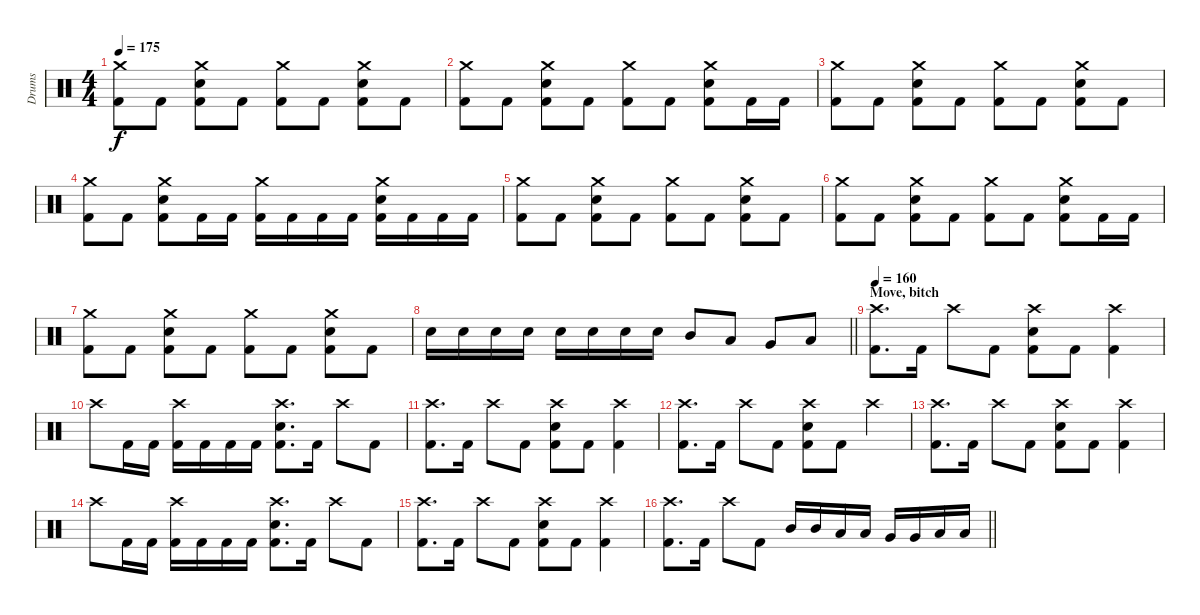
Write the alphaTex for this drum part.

\track ("Drums" "Drums") {instrument percussion}
\staff {score}
\articulation defaults
\ts (4 4)
\tempo 175
\clef neutral
\ks c
("Crash medium (hit)" "Kick (hit) 2").8{dy f} "Kick (hit) 2".8 ("Crash medium (hit)" "Electric Snare (hit)" "Kick (hit) 2").8 "Kick (hit) 2".8 ("Crash medium (hit)" "Kick (hit) 2").8 "Kick (hit) 2".8 ("Crash medium (hit)" "Electric Snare (hit)" "Kick (hit) 2").8 "Kick (hit) 2".8 |
("Crash medium (hit)" "Kick (hit) 2").8 "Kick (hit) 2".8 ("Crash medium (hit)" "Electric Snare (hit)" "Kick (hit) 2").8 "Kick (hit) 2".8 ("Crash medium (hit)" "Kick (hit) 2").8 "Kick (hit) 2".8 ("Crash medium (hit)" "Electric Snare (hit)" "Kick (hit) 2").8 "Kick (hit) 2".16 "Kick (hit) 2".16 |
("Crash medium (hit)" "Kick (hit) 2").8 "Kick (hit) 2".8 ("Crash medium (hit)" "Electric Snare (hit)" "Kick (hit) 2").8 "Kick (hit) 2".8 ("Crash medium (hit)" "Kick (hit) 2").8 "Kick (hit) 2".8 ("Crash medium (hit)" "Electric Snare (hit)" "Kick (hit) 2").8 "Kick (hit) 2".8 |
("Crash medium (hit)" "Kick (hit) 2").8 "Kick (hit) 2".8 ("Crash medium (hit)" "Electric Snare (hit)" "Kick (hit) 2").8 "Kick (hit) 2".16 "Kick (hit) 2".16 ("Crash medium (hit)" "Kick (hit) 2").16 "Kick (hit) 2".16 "Kick (hit) 2".16 "Kick (hit) 2".16 ("Crash medium (hit)" "Electric Snare (hit)" "Kick (hit) 2").16 "Kick (hit) 2".16 "Kick (hit) 2".16 "Kick (hit) 2".16 |
("Crash medium (hit)" "Kick (hit) 2").8 "Kick (hit) 2".8 ("Crash medium (hit)" "Electric Snare (hit)" "Kick (hit) 2").8 "Kick (hit) 2".8 ("Crash medium (hit)" "Kick (hit) 2").8 "Kick (hit) 2".8 ("Crash medium (hit)" "Electric Snare (hit)" "Kick (hit) 2").8 "Kick (hit) 2".8 |
("Crash medium (hit)" "Kick (hit) 2").8 "Kick (hit) 2".8 ("Crash medium (hit)" "Electric Snare (hit)" "Kick (hit) 2").8 "Kick (hit) 2".8 ("Crash medium (hit)" "Kick (hit) 2").8 "Kick (hit) 2".8 ("Crash medium (hit)" "Electric Snare (hit)" "Kick (hit) 2").8 "Kick (hit) 2".16 "Kick (hit) 2".16 |
("Crash medium (hit)" "Kick (hit) 2").8 "Kick (hit) 2".8 ("Crash medium (hit)" "Electric Snare (hit)" "Kick (hit) 2").8 "Kick (hit) 2".8 ("Crash medium (hit)" "Kick (hit) 2").8 "Kick (hit) 2".8 ("Crash medium (hit)" "Electric Snare (hit)" "Kick (hit) 2").8 "Kick (hit) 2".8 |
\barLineRight lightlight "Electric Snare (hit)".16 "Electric Snare (hit)".16 "Electric Snare (hit)".16 "Electric Snare (hit)".16 "Electric Snare (hit)".16 "Electric Snare (hit)".16 "Electric Snare (hit)".16 "Electric Snare (hit)".16 "Mid Tom (hit)".8 "Low Tom (hit)".8 "Very Low Tom (hit)".8 "Low Floor Tom (hit)".8
|
\section ("" "Move, bitch")
\tempo 160
("Crash high (hit)" "Kick (hit) 2").8{d} "Kick (hit) 2".16 "Crash high (hit)".8 "Kick (hit) 2".8 ("Crash high (hit)" "Electric Snare (hit)" "Kick (hit) 2").8 "Kick (hit) 2".8 ("Crash high (hit)" "Kick (hit) 2").4 |
"Crash high (hit)".8 "Kick (hit) 2".16 "Kick (hit) 2".16 ("Crash high (hit)" "Kick (hit) 2").16 "Kick (hit) 2".16 "Kick (hit) 2".16 "Kick (hit) 2".16 ("Crash high (hit)" "Electric Snare (hit)" "Kick (hit) 2").8{d} "Kick (hit) 2".16 "Crash high (hit)".8 "Kick (hit) 2".8 |
("Crash high (hit)" "Kick (hit) 2").8{d} "Kick (hit) 2".16 "Crash high (hit)".8 "Kick (hit) 2".8 ("Crash high (hit)" "Electric Snare (hit)" "Kick (hit) 2").8 "Kick (hit) 2".8 ("Crash high (hit)" "Kick (hit) 2").4 |
("Crash high (hit)" "Kick (hit) 2").8{d} "Kick (hit) 2".16 "Crash high (hit)".8 "Kick (hit) 2".8 ("Crash high (hit)" "Electric Snare (hit)" "Kick (hit) 2").8 "Kick (hit) 2".8 "Crash high (hit)".4 |
("Crash high (hit)" "Kick (hit) 2").8{d} "Kick (hit) 2".16 "Crash high (hit)".8 "Kick (hit) 2".8 ("Crash high (hit)" "Electric Snare (hit)" "Kick (hit) 2").8 "Kick (hit) 2".8 ("Crash high (hit)" "Kick (hit) 2").4 |
"Crash high (hit)".8 "Kick (hit) 2".16 "Kick (hit) 2".16 ("Crash high (hit)" "Kick (hit) 2").16 "Kick (hit) 2".16 "Kick (hit) 2".16 "Kick (hit) 2".16 ("Crash high (hit)" "Electric Snare (hit)" "Kick (hit) 2").8{d} "Kick (hit) 2".16 "Crash high (hit)".8 "Kick (hit) 2".8 |
("Crash high (hit)" "Kick (hit) 2").8{d} "Kick (hit) 2".16 "Crash high (hit)".8 "Kick (hit) 2".8 ("Crash high (hit)" "Electric Snare (hit)" "Kick (hit) 2").8 "Kick (hit) 2".8 ("Crash high (hit)" "Kick (hit) 2").4 |
\barLineRight lightlight
("Crash high (hit)" "Kick (hit) 2").8{d} "Kick (hit) 2".16 "Crash high (hit)".8 "Kick (hit) 2".8 "Mid Tom (hit)".16 "Mid Tom (hit)".16 "Low Tom (hit)".16 "Low Tom (hit)".16 "Very Low Tom (hit)".16 "Very Low Tom (hit)".16 "Low Floor Tom (hit)".16 "Low Floor Tom (hit)".16
